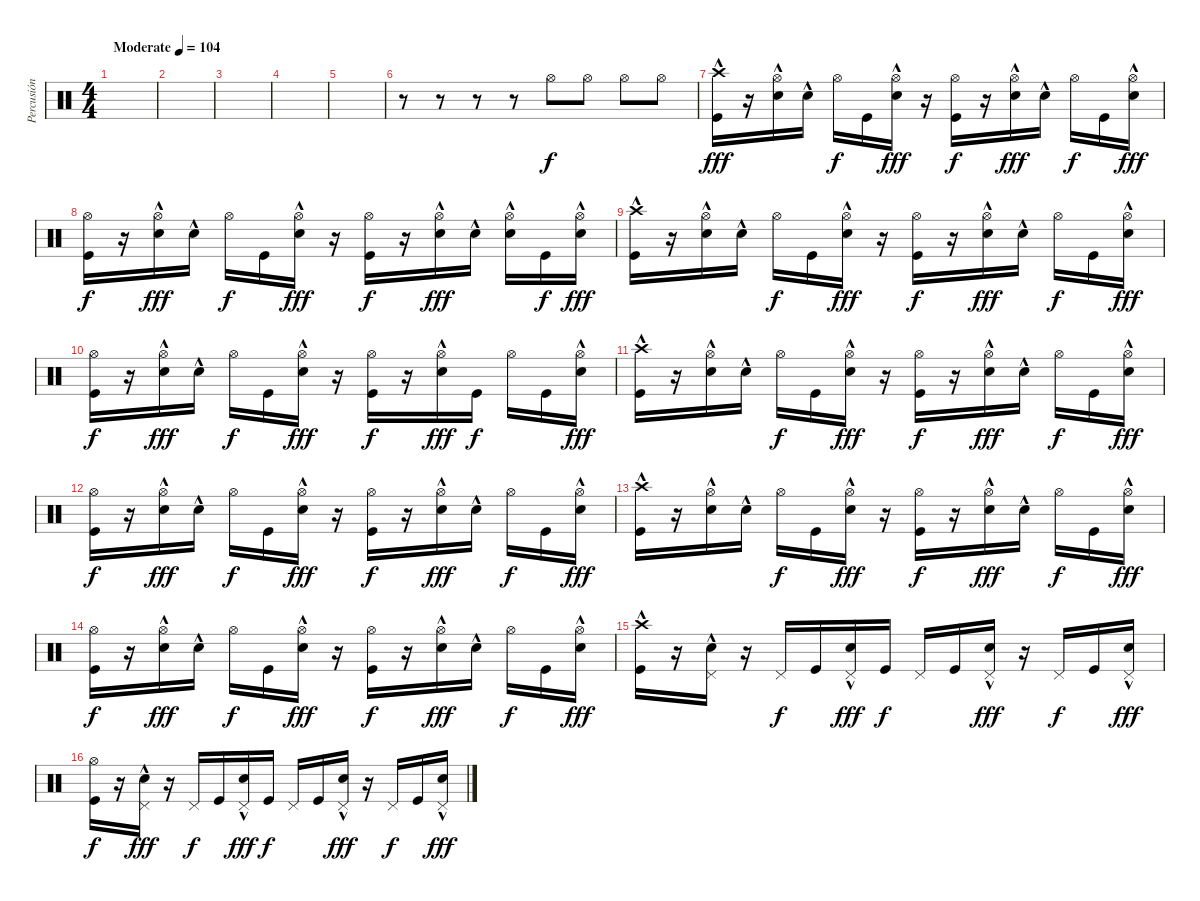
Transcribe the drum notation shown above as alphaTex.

\track ("Percusión" "Percusión") {instrument percussion}
\staff {score}
\articulation defaults
\ts (4 4)
\tempo (104 "Moderate")
\clef neutral
\ks c
|
|
|
|
|
r.8 r.8 r.8 r.8 "Hi-Hat (open)".8 "Hi-Hat (open)".8 "Hi-Hat (open)".8 "Hi-Hat (open)".8 |
("Crash high (hit)"{hac} "Kick (hit)").16{dy fff} r.16 ("Hi-Hat (open)" "Snare (hit) 2"{hac}).16 "Snare (hit) 2"{hac}.16 "Hi-Hat (open)".16{dy f} "Kick (hit)".16 ("Hi-Hat (open)" "Snare (hit) 2"{hac}).16{dy fff} r.16 ("Hi-Hat (open)" "Kick (hit)").16{dy f} r.16 ("Hi-Hat (open)" "Snare (hit) 2"{hac}).16{dy fff} "Snare (hit) 2"{hac}.16 "Hi-Hat (open)".16{dy f} "Kick (hit)".16 ("Hi-Hat (open)" "Snare (hit) 2"{hac}).16{dy fff} |
("Hi-Hat (open)" "Kick (hit)").16{dy f} r.16 ("Hi-Hat (open)" "Snare (hit) 2"{hac}).16{dy fff} "Snare (hit) 2"{hac}.16 "Hi-Hat (open)".16{dy f} "Kick (hit)".16 ("Hi-Hat (open)" "Snare (hit) 2"{hac}).16{dy fff} r.16 ("Hi-Hat (open)" "Kick (hit)").16{dy f} r.16 ("Hi-Hat (open)" "Snare (hit) 2"{hac}).16{dy fff} "Snare (hit) 2"{hac}.16 ("Hi-Hat (open)" "Snare (hit) 2"{hac}).16 "Kick (hit)".16{dy f} ("Hi-Hat (open)" "Snare (hit) 2"{hac}).16{dy fff} |
("Crash high (hit)"{hac} "Kick (hit)").16 r.16 ("Hi-Hat (open)" "Snare (hit) 2"{hac}).16 "Snare (hit) 2"{hac}.16 "Hi-Hat (open)".16{dy f} "Kick (hit)".16 ("Hi-Hat (open)" "Snare (hit) 2"{hac}).16{dy fff} r.16 ("Hi-Hat (open)" "Kick (hit)").16{dy f} r.16 ("Hi-Hat (open)" "Snare (hit) 2"{hac}).16{dy fff} "Snare (hit) 2"{hac}.16 "Hi-Hat (open)".16{dy f} "Kick (hit)".16 ("Hi-Hat (open)" "Snare (hit) 2"{hac}).16{dy fff} |
("Hi-Hat (open)" "Kick (hit)").16{dy f} r.16 ("Hi-Hat (open)" "Snare (hit) 2"{hac}).16{dy fff} "Snare (hit) 2"{hac}.16 "Hi-Hat (open)".16{dy f} "Kick (hit)".16 ("Hi-Hat (open)" "Snare (hit) 2"{hac}).16{dy fff} r.16 ("Hi-Hat (open)" "Kick (hit)").16{dy f} r.16 ("Hi-Hat (open)" "Snare (hit) 2"{hac}).16{dy fff} "Kick (hit)".16{dy f} "Hi-Hat (open)".16 "Kick (hit)".16 ("Hi-Hat (open)" "Snare (hit) 2"{hac}).16{dy fff} |
("Crash high (hit)"{hac} "Kick (hit)").16 r.16 ("Hi-Hat (open)" "Snare (hit) 2"{hac}).16 "Snare (hit) 2"{hac}.16 "Hi-Hat (open)".16{dy f} "Kick (hit)".16 ("Hi-Hat (open)" "Snare (hit) 2"{hac}).16{dy fff} r.16 ("Hi-Hat (open)" "Kick (hit)").16{dy f} r.16 ("Hi-Hat (open)" "Snare (hit) 2"{hac}).16{dy fff} "Snare (hit) 2"{hac}.16 "Hi-Hat (open)".16{dy f} "Kick (hit)".16 ("Hi-Hat (open)" "Snare (hit) 2"{hac}).16{dy fff} |
("Hi-Hat (open)" "Kick (hit)").16{dy f} r.16 ("Hi-Hat (open)" "Snare (hit) 2"{hac}).16{dy fff} "Snare (hit) 2"{hac}.16 "Hi-Hat (open)".16{dy f} "Kick (hit)".16 ("Hi-Hat (open)" "Snare (hit) 2"{hac}).16{dy fff} r.16 ("Hi-Hat (open)" "Kick (hit)").16{dy f} r.16 ("Hi-Hat (open)" "Snare (hit) 2"{hac}).16{dy fff} "Snare (hit) 2"{hac}.16 "Hi-Hat (open)".16{dy f} "Kick (hit)".16 ("Hi-Hat (open)" "Snare (hit) 2"{hac}).16{dy fff} |
("Crash high (hit)"{hac} "Kick (hit)").16 r.16 ("Hi-Hat (open)" "Snare (hit) 2"{hac}).16 "Snare (hit) 2"{hac}.16 "Hi-Hat (open)".16{dy f} "Kick (hit)".16 ("Hi-Hat (open)" "Snare (hit) 2"{hac}).16{dy fff} r.16 ("Hi-Hat (open)" "Kick (hit)").16{dy f} r.16 ("Hi-Hat (open)" "Snare (hit) 2"{hac}).16{dy fff} "Snare (hit) 2"{hac}.16 "Hi-Hat (open)".16{dy f} "Kick (hit)".16 ("Hi-Hat (open)" "Snare (hit) 2"{hac}).16{dy fff} |
("Hi-Hat (open)" "Kick (hit)").16{dy f} r.16 ("Hi-Hat (open)" "Snare (hit) 2"{hac}).16{dy fff} "Snare (hit) 2"{hac}.16 "Hi-Hat (open)".16{dy f} "Kick (hit)".16 ("Hi-Hat (open)" "Snare (hit) 2"{hac}).16{dy fff} r.16 ("Hi-Hat (open)" "Kick (hit)").16{dy f} r.16 ("Hi-Hat (open)" "Snare (hit) 2"{hac}).16{dy fff} "Snare (hit) 2"{hac}.16 "Hi-Hat (open)".16{dy f} "Kick (hit)".16 ("Hi-Hat (open)" "Snare (hit) 2"{hac}).16{dy fff} |
("Crash high (hit)"{hac} "Kick (hit)").16 r.16 ("Pedal Hi-Hat (hit)" "Snare (hit) 2"{hac}).16 r.16 "Pedal Hi-Hat (hit)".16{dy f} "Kick (hit)".16 ("Pedal Hi-Hat (hit)" "Snare (hit) 2"{hac}).16{dy fff} "Kick (hit)".16{dy f} "Pedal Hi-Hat (hit)".16 "Kick (hit)".16 ("Pedal Hi-Hat (hit)" "Snare (hit) 2"{hac}).16{dy fff} r.16 "Pedal Hi-Hat (hit)".16{dy f} "Kick (hit)".16 ("Pedal Hi-Hat (hit)" "Snare (hit) 2"{hac}).16{dy fff} |
("Hi-Hat (open)" "Kick (hit)").16{dy f} r.16 ("Pedal Hi-Hat (hit)" "Snare (hit) 2"{hac}).16{dy fff} r.16 "Pedal Hi-Hat (hit)".16{dy f} "Kick (hit)".16 ("Pedal Hi-Hat (hit)" "Snare (hit) 2"{hac}).16{dy fff} "Kick (hit)".16{dy f} "Pedal Hi-Hat (hit)".16 "Kick (hit)".16 ("Pedal Hi-Hat (hit)" "Snare (hit) 2"{hac}).16{dy fff} r.16 "Pedal Hi-Hat (hit)".16{dy f} "Kick (hit)".16 ("Pedal Hi-Hat (hit)" "Snare (hit) 2"{hac}).16{dy fff}
